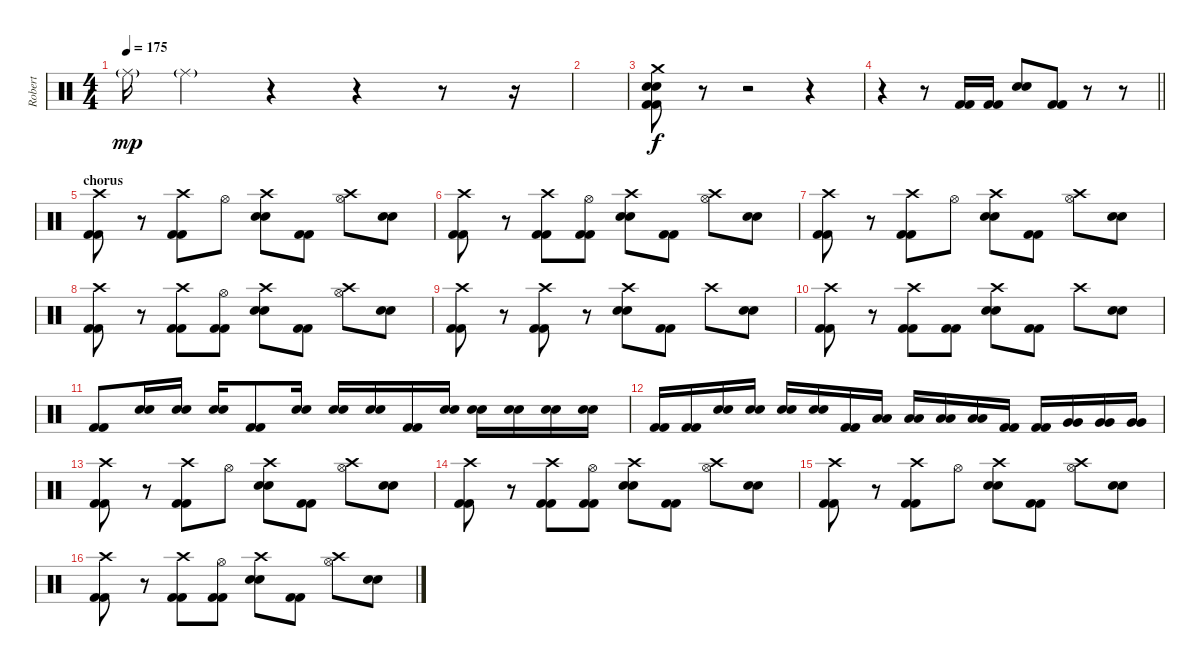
\track ("Robert" "Robert") {instrument percussion}
\staff {score}
\articulation defaults
\ts (4 4)
\tempo 175
\clef neutral
\ks c "Ride (middle)"{g}.16{dy mp} "Ride (middle)"{g}.4
r.4 r.4 r.8 r.16 |
|
("Crash medium (hit)" "Kick (hit) 2" "Electric Snare (hit)" "Electric Snare (hit)" "Kick (hit) 2").8{dy f} r.8 r.2 r.4 |
\barLineRight lightlight
r.4 r.8 ("Kick (hit) 2" "Kick (hit) 2").16 ("Kick (hit) 2" "Kick (hit) 2").16 ("Electric Snare (hit)" "Electric Snare (hit)").8 ("Kick (hit) 2" "Kick (hit) 2").8 r.8 r.8 |
\section ("" "chorus")
("Crash high (hit)" "Kick (hit) 2" "Kick (hit) 2").8 r.8 ("Crash high (hit)" "Kick (hit) 2" "Kick (hit) 2").8 "Hi-Hat (open)".8 ("Crash high (hit)" "Electric Snare (hit)" "Electric Snare (hit)").8 ("Kick (hit) 2" "Kick (hit) 2").8 ("Crash high (hit)" "Hi-Hat (open)").8 ("Electric Snare (hit)" "Electric Snare (hit)").8 |
("Crash high (hit)" "Kick (hit) 2" "Kick (hit) 2").8 r.8 ("Crash high (hit)" "Kick (hit) 2" "Kick (hit) 2").8 ("Hi-Hat (open)" "Kick (hit) 2" "Kick (hit) 2").8 ("Crash high (hit)" "Electric Snare (hit)" "Electric Snare (hit)").8 ("Kick (hit) 2" "Kick (hit) 2").8 ("Crash high (hit)" "Hi-Hat (open)").8 ("Electric Snare (hit)" "Electric Snare (hit)").8 |
("Crash high (hit)" "Kick (hit) 2" "Kick (hit) 2").8 r.8 ("Crash high (hit)" "Kick (hit) 2" "Kick (hit) 2").8 "Hi-Hat (open)".8 ("Crash high (hit)" "Electric Snare (hit)" "Electric Snare (hit)").8 ("Kick (hit) 2" "Kick (hit) 2").8 ("Crash high (hit)" "Hi-Hat (open)").8 ("Electric Snare (hit)" "Electric Snare (hit)").8 |
("Crash high (hit)" "Kick (hit) 2" "Kick (hit) 2").8 r.8 ("Crash high (hit)" "Kick (hit) 2" "Kick (hit) 2").8 ("Hi-Hat (open)" "Kick (hit) 2" "Kick (hit) 2").8 ("Crash high (hit)" "Electric Snare (hit)" "Electric Snare (hit)").8 ("Kick (hit) 2" "Kick (hit) 2").8 ("Crash high (hit)" "Hi-Hat (open)").8 ("Electric Snare (hit)" "Electric Snare (hit)").8 |
("Crash high (hit)" "Kick (hit) 2" "Kick (hit) 2").8 r.8 ("Crash high (hit)" "Kick (hit) 2" "Kick (hit) 2").8 r.8 ("Crash high (hit)" "Electric Snare (hit)" "Electric Snare (hit)").8 ("Kick (hit) 2" "Kick (hit) 2").8 "Crash high (hit)".8 ("Electric Snare (hit)" "Electric Snare (hit)").8 |
("Crash high (hit)" "Kick (hit) 2" "Kick (hit) 2").8 r.8 ("Crash high (hit)" "Kick (hit) 2" "Kick (hit) 2").8 ("Kick (hit) 2" "Kick (hit) 2").8 ("Crash high (hit)" "Electric Snare (hit)" "Electric Snare (hit)").8 ("Kick (hit) 2" "Kick (hit) 2").8 "Crash high (hit)".8 ("Electric Snare (hit)" "Electric Snare (hit)").8 |
("Kick (hit) 2" "Kick (hit) 2").8 ("Electric Snare (hit)" "Electric Snare (hit)").16 ("Electric Snare (hit)" "Electric Snare (hit)").16 ("Electric Snare (hit)" "Electric Snare (hit)").16 ("Kick (hit) 2" "Kick (hit) 2").8 ("Electric Snare (hit)" "Electric Snare (hit)").16 ("Electric Snare (hit)" "Electric Snare (hit)").16 ("Electric Snare (hit)" "Electric Snare (hit)").16 ("Kick (hit) 2" "Kick (hit) 2").16 ("Electric Snare (hit)" "Electric Snare (hit)").16 ("Electric Snare (hit)" "Electric Snare (hit)").16 ("Electric Snare (hit)" "Electric Snare (hit)").16 ("Electric Snare (hit)" "Electric Snare (hit)").16 ("Electric Snare (hit)" "Electric Snare (hit)").16 |
("Kick (hit) 2" "Kick (hit) 2").16 ("Kick (hit) 2" "Kick (hit) 2").16 ("Electric Snare (hit)" "Electric Snare (hit)").16 ("Electric Snare (hit)" "Electric Snare (hit)").16 ("Electric Snare (hit)" "Electric Snare (hit)").16 ("Electric Snare (hit)" "Electric Snare (hit)").16 ("Kick (hit) 2" "Kick (hit) 2").16 ("Low Tom (hit)" "Low Tom (hit)").16 ("Low Tom (hit)" "Low Tom (hit)").16 ("Low Tom (hit)" "Low Tom (hit)").16 ("Low Tom (hit)" "Low Tom (hit)").16 ("Kick (hit) 2" "Kick (hit) 2").16 ("Kick (hit) 2" "Kick (hit) 2").16 ("Very Low Tom (hit)" "Very Low Tom (hit)").16 ("Very Low Tom (hit)" "Very Low Tom (hit)").16 ("Very Low Tom (hit)" "Very Low Tom (hit)").16 |
("Crash high (hit)" "Kick (hit) 2" "Kick (hit) 2").8 r.8 ("Crash high (hit)" "Kick (hit) 2" "Kick (hit) 2").8 "Hi-Hat (open)".8 ("Crash high (hit)" "Electric Snare (hit)" "Electric Snare (hit)").8 ("Kick (hit) 2" "Kick (hit) 2").8 ("Crash high (hit)" "Hi-Hat (open)").8 ("Electric Snare (hit)" "Electric Snare (hit)").8 |
("Crash high (hit)" "Kick (hit) 2" "Kick (hit) 2").8 r.8 ("Crash high (hit)" "Kick (hit) 2" "Kick (hit) 2").8 ("Hi-Hat (open)" "Kick (hit) 2" "Kick (hit) 2").8 ("Crash high (hit)" "Electric Snare (hit)" "Electric Snare (hit)").8 ("Kick (hit) 2" "Kick (hit) 2").8 ("Crash high (hit)" "Hi-Hat (open)").8 ("Electric Snare (hit)" "Electric Snare (hit)").8 |
("Crash high (hit)" "Kick (hit) 2" "Kick (hit) 2").8 r.8 ("Crash high (hit)" "Kick (hit) 2" "Kick (hit) 2").8 "Hi-Hat (open)".8 ("Crash high (hit)" "Electric Snare (hit)" "Electric Snare (hit)").8 ("Kick (hit) 2" "Kick (hit) 2").8 ("Crash high (hit)" "Hi-Hat (open)").8 ("Electric Snare (hit)" "Electric Snare (hit)").8 |
("Crash high (hit)" "Kick (hit) 2" "Kick (hit) 2").8 r.8 ("Crash high (hit)" "Kick (hit) 2" "Kick (hit) 2").8 ("Hi-Hat (open)" "Kick (hit) 2" "Kick (hit) 2").8 ("Crash high (hit)" "Electric Snare (hit)" "Electric Snare (hit)").8 ("Kick (hit) 2" "Kick (hit) 2").8 ("Crash high (hit)" "Hi-Hat (open)").8 ("Electric Snare (hit)" "Electric Snare (hit)").8
